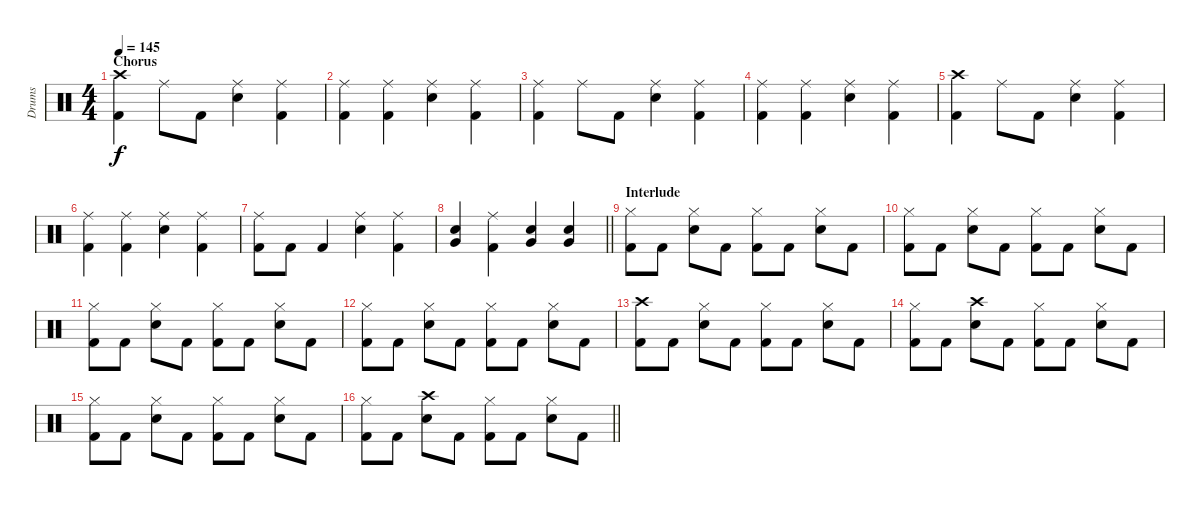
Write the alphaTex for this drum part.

\track ("Drums" "Drums") {instrument percussion}
\staff {score}
\articulation defaults
\ts (4 4)
\section ("" "Chorus")
\tempo 145
\clef neutral
\ks c
("Crash high (hit)" "Kick (hit) 2").4{dy f} "Ride (middle)".8 "Kick (hit) 2".8 ("Ride (middle)" "Snare (hit) 2").4 ("Ride (middle)" "Kick (hit) 2").4 |
("Ride (middle)" "Kick (hit) 2").4 ("Ride (middle)" "Kick (hit) 2").4 ("Ride (middle)" "Snare (hit) 2").4 ("Ride (middle)" "Kick (hit) 2").4 |
("Ride (middle)" "Kick (hit) 2").4 "Ride (middle)".8 "Kick (hit) 2".8 ("Ride (middle)" "Snare (hit) 2").4 ("Ride (middle)" "Kick (hit) 2").4 |
("Ride (middle)" "Kick (hit) 2").4 ("Ride (middle)" "Kick (hit) 2").4 ("Ride (middle)" "Snare (hit) 2").4 ("Ride (middle)" "Kick (hit) 2").4 |
("Crash high (hit)" "Kick (hit) 2").4 "Ride (middle)".8 "Kick (hit) 2".8 ("Ride (middle)" "Snare (hit) 2").4 ("Ride (middle)" "Kick (hit) 2").4 |
("Ride (middle)" "Kick (hit) 2").4 ("Ride (middle)" "Kick (hit) 2").4 ("Ride (middle)" "Snare (hit) 2").4 ("Ride (middle)" "Kick (hit) 2").4 |
("Ride (middle)" "Kick (hit) 2").8 "Kick (hit) 2".8 "Kick (hit) 2".4 ("Ride (middle)" "Snare (hit) 2").4 ("Ride (middle)" "Kick (hit) 2").4 |
\barLineRight lightlight
("Snare (hit) 2" "Very Low Tom (hit)").4 ("Ride (middle)" "Kick (hit) 2").4 ("Snare (hit) 2" "Very Low Tom (hit)").4 ("Snare (hit) 2" "Very Low Tom (hit)").4 |
\section ("" "Interlude")
("Hi-Hat (closed)" "Kick (hit) 2").8 "Kick (hit) 2".8 ("Hi-Hat (closed)" "Snare (hit) 2").8 "Kick (hit) 2".8 ("Hi-Hat (closed)" "Kick (hit) 2").8 "Kick (hit) 2".8 ("Hi-Hat (closed)" "Snare (hit) 2").8 "Kick (hit) 2".8 |
("Hi-Hat (closed)" "Kick (hit) 2").8 "Kick (hit) 2".8 ("Hi-Hat (closed)" "Snare (hit) 2").8 "Kick (hit) 2".8 ("Hi-Hat (closed)" "Kick (hit) 2").8 "Kick (hit) 2".8 ("Hi-Hat (closed)" "Snare (hit) 2").8 "Kick (hit) 2".8 |
("Hi-Hat (closed)" "Kick (hit) 2").8 "Kick (hit) 2".8 ("Hi-Hat (closed)" "Snare (hit) 2").8 "Kick (hit) 2".8 ("Hi-Hat (closed)" "Kick (hit) 2").8 "Kick (hit) 2".8 ("Hi-Hat (closed)" "Snare (hit) 2").8 "Kick (hit) 2".8 |
("Hi-Hat (closed)" "Kick (hit) 2").8 "Kick (hit) 2".8 ("Hi-Hat (closed)" "Snare (hit) 2").8 "Kick (hit) 2".8 ("Hi-Hat (closed)" "Kick (hit) 2").8 "Kick (hit) 2".8 ("Hi-Hat (closed)" "Snare (hit) 2").8 "Kick (hit) 2".8 |
("Crash high (hit)" "Kick (hit) 2").8 "Kick (hit) 2".8 ("Hi-Hat (closed)" "Snare (hit) 2").8 "Kick (hit) 2".8 ("Hi-Hat (closed)" "Kick (hit) 2").8 "Kick (hit) 2".8 ("Hi-Hat (closed)" "Snare (hit) 2").8 "Kick (hit) 2".8 |
("Hi-Hat (closed)" "Kick (hit) 2").8 "Kick (hit) 2".8 ("Crash high (hit)" "Snare (hit) 2").8 "Kick (hit) 2".8 ("Hi-Hat (closed)" "Kick (hit) 2").8 "Kick (hit) 2".8 ("Hi-Hat (closed)" "Snare (hit) 2").8 "Kick (hit) 2".8 |
("Hi-Hat (closed)" "Kick (hit) 2").8 "Kick (hit) 2".8 ("Hi-Hat (closed)" "Snare (hit) 2").8 "Kick (hit) 2".8 ("Hi-Hat (closed)" "Kick (hit) 2").8 "Kick (hit) 2".8 ("Hi-Hat (closed)" "Snare (hit) 2").8 "Kick (hit) 2".8 |
\barLineRight lightlight
("Hi-Hat (closed)" "Kick (hit) 2").8 "Kick (hit) 2".8 ("Crash high (hit)" "Snare (hit) 2").8 "Kick (hit) 2".8 ("Hi-Hat (closed)" "Kick (hit) 2").8 "Kick (hit) 2".8 ("Hi-Hat (closed)" "Snare (hit) 2").8 "Kick (hit) 2".8
